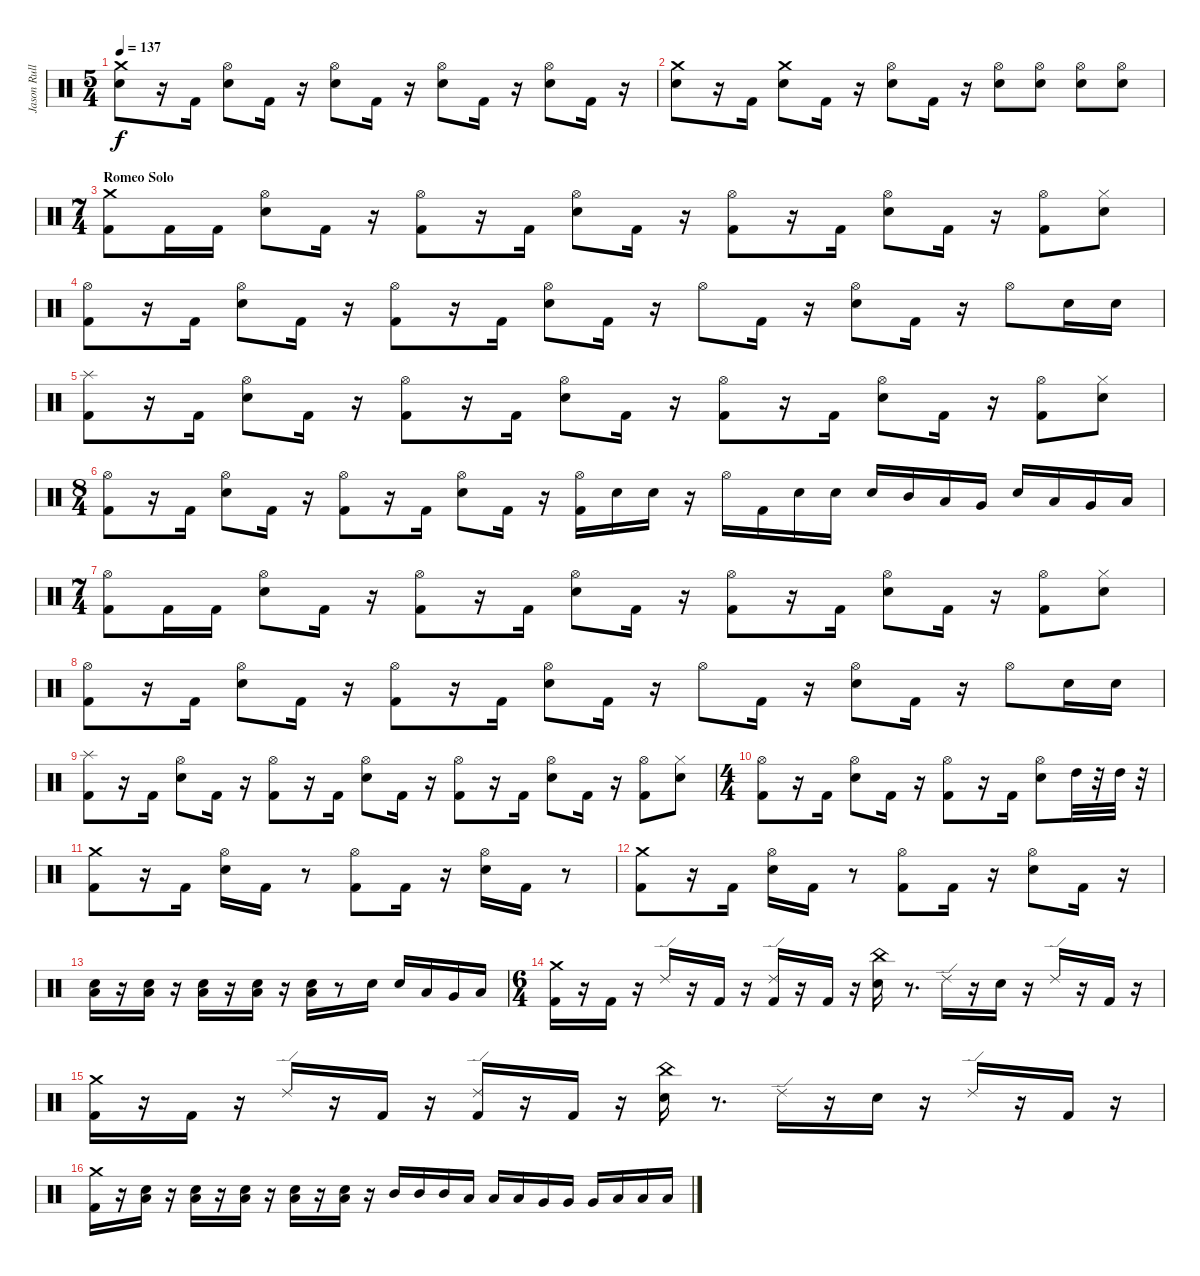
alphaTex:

\track ("Jason Rullo" "Jason Rull") {instrument percussion}
\staff {score}
\articulation defaults
\ts (5 4)
\tempo 137
\clef neutral
\ks c
("Crash medium (hit)" "Electric Snare (hit)").8{dy f} r.16 "Kick (hit) 2".16 ("Hi-Hat (open)" "Electric Snare (hit)").8 "Kick (hit) 2".16 r.16 ("Hi-Hat (open)" "Electric Snare (hit)").8 "Kick (hit) 2".16 r.16 ("Hi-Hat (open)" "Electric Snare (hit)").8 "Kick (hit) 2".16 r.16 ("Hi-Hat (open)" "Electric Snare (hit)").8 "Kick (hit) 2".16 r.16 |
("Crash medium (hit)" "Electric Snare (hit)").8 r.16 "Kick (hit) 2".16 ("Crash medium (hit)" "Electric Snare (hit)").8 "Kick (hit) 2".16 r.16 ("Hi-Hat (open)" "Electric Snare (hit)").8 "Kick (hit) 2".16 r.16 ("Hi-Hat (open)" "Electric Snare (hit)").8 ("Hi-Hat (open)" "Electric Snare (hit)").8 ("Hi-Hat (open)" "Electric Snare (hit)").8 ("Hi-Hat (open)" "Electric Snare (hit)").8 |
\ts (7 4)
\section ("" "Romeo Solo")
("Crash medium (hit)" "Kick (hit) 2").8 "Kick (hit) 2".16 "Kick (hit) 2".16 ("Hi-Hat (open)" "Electric Snare (hit)").8 "Kick (hit) 2".16 r.16 ("Hi-Hat (open)" "Kick (hit) 2").8 r.16 "Kick (hit) 2".16 ("Hi-Hat (open)" "Electric Snare (hit)").8 "Kick (hit) 2".16 r.16 ("Hi-Hat (open)" "Kick (hit) 2").8 r.16 "Kick (hit) 2".16 ("Hi-Hat (open)" "Electric Snare (hit)").8 "Kick (hit) 2".16 r.16 ("Hi-Hat (open)" "Kick (hit) 2").8 ("Hi-Hat (closed)" "Electric Snare (hit)").8 |
("Hi-Hat (open)" "Kick (hit) 2").8 r.16 "Kick (hit) 2".16 ("Hi-Hat (open)" "Electric Snare (hit)").8 "Kick (hit) 2".16 r.16 ("Hi-Hat (open)" "Kick (hit) 2").8 r.16 "Kick (hit) 2".16 ("Hi-Hat (open)" "Electric Snare (hit)").8 "Kick (hit) 2".16 r.16 "Hi-Hat (open)".8 "Kick (hit) 2".16 r.16 ("Hi-Hat (open)" "Electric Snare (hit)").8 "Kick (hit) 2".16 r.16 "Hi-Hat (open)".8 "Electric Snare (hit)".16 "Electric Snare (hit)".16 |
("Splash (hit)" "Kick (hit) 2").8 r.16 "Kick (hit) 2".16 ("Hi-Hat (open)" "Electric Snare (hit)").8 "Kick (hit) 2".16 r.16 ("Hi-Hat (open)" "Kick (hit) 2").8 r.16 "Kick (hit) 2".16 ("Hi-Hat (open)" "Electric Snare (hit)").8 "Kick (hit) 2".16 r.16 ("Hi-Hat (open)" "Kick (hit) 2").8 r.16 "Kick (hit) 2".16 ("Hi-Hat (open)" "Electric Snare (hit)").8 "Kick (hit) 2".16 r.16 ("Hi-Hat (open)" "Kick (hit) 2").8 ("Hi-Hat (closed)" "Electric Snare (hit)").8 |
\ts (8 4)
("Hi-Hat (open)" "Kick (hit) 2").8 r.16 "Kick (hit) 2".16 ("Hi-Hat (open)" "Electric Snare (hit)").8 "Kick (hit) 2".16 r.16 ("Hi-Hat (open)" "Kick (hit) 2").8 r.16 "Kick (hit) 2".16 ("Hi-Hat (open)" "Electric Snare (hit)").8 "Kick (hit) 2".16 r.16 ("Hi-Hat (open)" "Kick (hit) 2").16 "Electric Snare (hit)".16 "Electric Snare (hit)".16 r.16 "Hi-Hat (open)".16 "Kick (hit) 2".16 "Electric Snare (hit)".16 "Electric Snare (hit)".16 "Electric Snare (hit)".16 "Mid Tom (hit)".16 "Low Tom (hit)".16 "Very Low Tom (hit)".16 "Electric Snare (hit)".16 "Low Tom (hit)".16 "Very Low Tom (hit)".16 "Low Floor Tom (hit)".16 |
\ts (7 4)
("Hi-Hat (open)" "Kick (hit) 2").8 "Kick (hit) 2".16 "Kick (hit) 2".16 ("Hi-Hat (open)" "Electric Snare (hit)").8 "Kick (hit) 2".16 r.16 ("Hi-Hat (open)" "Kick (hit) 2").8 r.16 "Kick (hit) 2".16 ("Hi-Hat (open)" "Electric Snare (hit)").8 "Kick (hit) 2".16 r.16 ("Hi-Hat (open)" "Kick (hit) 2").8 r.16 "Kick (hit) 2".16 ("Hi-Hat (open)" "Electric Snare (hit)").8 "Kick (hit) 2".16 r.16 ("Hi-Hat (open)" "Kick (hit) 2").8 ("Hi-Hat (closed)" "Electric Snare (hit)").8 |
("Hi-Hat (open)" "Kick (hit) 2").8 r.16 "Kick (hit) 2".16 ("Hi-Hat (open)" "Electric Snare (hit)").8 "Kick (hit) 2".16 r.16 ("Hi-Hat (open)" "Kick (hit) 2").8 r.16 "Kick (hit) 2".16 ("Hi-Hat (open)" "Electric Snare (hit)").8 "Kick (hit) 2".16 r.16 "Hi-Hat (open)".8 "Kick (hit) 2".16 r.16 ("Hi-Hat (open)" "Electric Snare (hit)").8 "Kick (hit) 2".16 r.16 "Hi-Hat (open)".8 "Electric Snare (hit)".16 "Electric Snare (hit)".16 |
("Splash (hit)" "Kick (hit) 2").8 r.16 "Kick (hit) 2".16 ("Hi-Hat (open)" "Electric Snare (hit)").8 "Kick (hit) 2".16 r.16 ("Hi-Hat (open)" "Kick (hit) 2").8 r.16 "Kick (hit) 2".16 ("Hi-Hat (open)" "Electric Snare (hit)").8 "Kick (hit) 2".16 r.16 ("Hi-Hat (open)" "Kick (hit) 2").8 r.16 "Kick (hit) 2".16 ("Hi-Hat (open)" "Electric Snare (hit)").8 "Kick (hit) 2".16 r.16 ("Hi-Hat (open)" "Kick (hit) 2").8 ("Hi-Hat (closed)" "Electric Snare (hit)").8 |
\ts (4 4)
("Hi-Hat (open)" "Kick (hit) 2").8 r.16 "Kick (hit) 2".16 ("Hi-Hat (open)" "Electric Snare (hit)").8 "Kick (hit) 2".16 r.16 ("Hi-Hat (open)" "Kick (hit) 2").8 r.16 "Kick (hit) 2".16 ("Hi-Hat (open)" "Electric Snare (hit)").8 "High Tom (hit)".32 r.32 "High Tom (hit)".32 r.32 |
("Crash medium (hit)" "Kick (hit) 2").8 r.16 "Kick (hit) 2".16 ("Electric Snare (hit)" "Hi-Hat (open)").16 "Kick (hit) 2".16 r.8 ("Kick (hit) 2" "Hi-Hat (open)").8 "Kick (hit) 2".16 r.16 ("Hi-Hat (open)" "Electric Snare (hit)").16 "Kick (hit) 2".16 r.8 |
("Crash medium (hit)" "Kick (hit) 2").8 r.16 "Kick (hit) 2".16 ("Electric Snare (hit)" "Hi-Hat (open)").16 "Kick (hit) 2".16 r.8 ("Kick (hit) 2" "Hi-Hat (open)").8 "Kick (hit) 2".16 r.16 ("Hi-Hat (open)" "Electric Snare (hit)").8 "Kick (hit) 2".16 r.16 |
("Low Tom (hit)" "Electric Snare (hit)").16 r.16 ("Low Tom (hit)" "Electric Snare (hit)").16 r.16 ("Low Tom (hit)" "Electric Snare (hit)").16 r.16 ("Low Tom (hit)" "Electric Snare (hit)").16 r.16 ("Low Tom (hit)" "Electric Snare (hit)").16 r.8 "Electric Snare (hit)".16 "Electric Snare (hit)".16 "Low Tom (hit)".16 "Very Low Tom (hit)".16 "Low Floor Tom (hit)".16 |
\ts (6 4)
("Crash medium (hit)" "Kick (hit) 2").16 r.16 "Kick (hit) 2".16 r.16 "Ride (edge) 2".16 r.16 "Kick (hit) 2".16 r.16 ("Ride (edge) 2" "Kick (hit) 2").16 r.16 "Kick (hit) 2".16 r.16 ("China (hit)" "Electric Snare (hit)").16 r.8{d} "Ride (edge) 2".16 r.16 "Electric Snare (hit)".16 r.16 "Ride (edge) 2".16 r.16 "Kick (hit) 2".16 r.16 |
("Crash medium (hit)" "Kick (hit) 2").16 r.16 "Kick (hit) 2".16 r.16 "Ride (edge) 2".16 r.16 "Kick (hit) 2".16 r.16 ("Ride (edge) 2" "Kick (hit) 2").16 r.16 "Kick (hit) 2".16 r.16 ("China (hit)" "Electric Snare (hit)").16 r.8{d} "Ride (edge) 2".16 r.16 "Electric Snare (hit)".16 r.16 "Ride (edge) 2".16 r.16 "Kick (hit) 2".16 r.16 |
("Crash medium (hit)" "Kick (hit) 2").16 r.16 ("Low Tom (hit)" "Electric Snare (hit)").16 r.16 ("Low Tom (hit)" "Electric Snare (hit)").16 r.16 ("Low Tom (hit)" "Electric Snare (hit)").16 r.16 ("Low Tom (hit)" "Electric Snare (hit)").16 r.16 ("Low Tom (hit)" "Electric Snare (hit)").16 r.16 "Mid Tom (hit)".16 "Mid Tom (hit)".16 "Mid Tom (hit)".16 "Low Tom (hit)".16 "Low Tom (hit)".16 "Low Tom (hit)".16 "Very Low Tom (hit)".16 "Very Low Tom (hit)".16 "Very Low Tom (hit)".16 "Low Floor Tom (hit)".16 "Low Floor Tom (hit)".16 "Low Floor Tom (hit)".16
